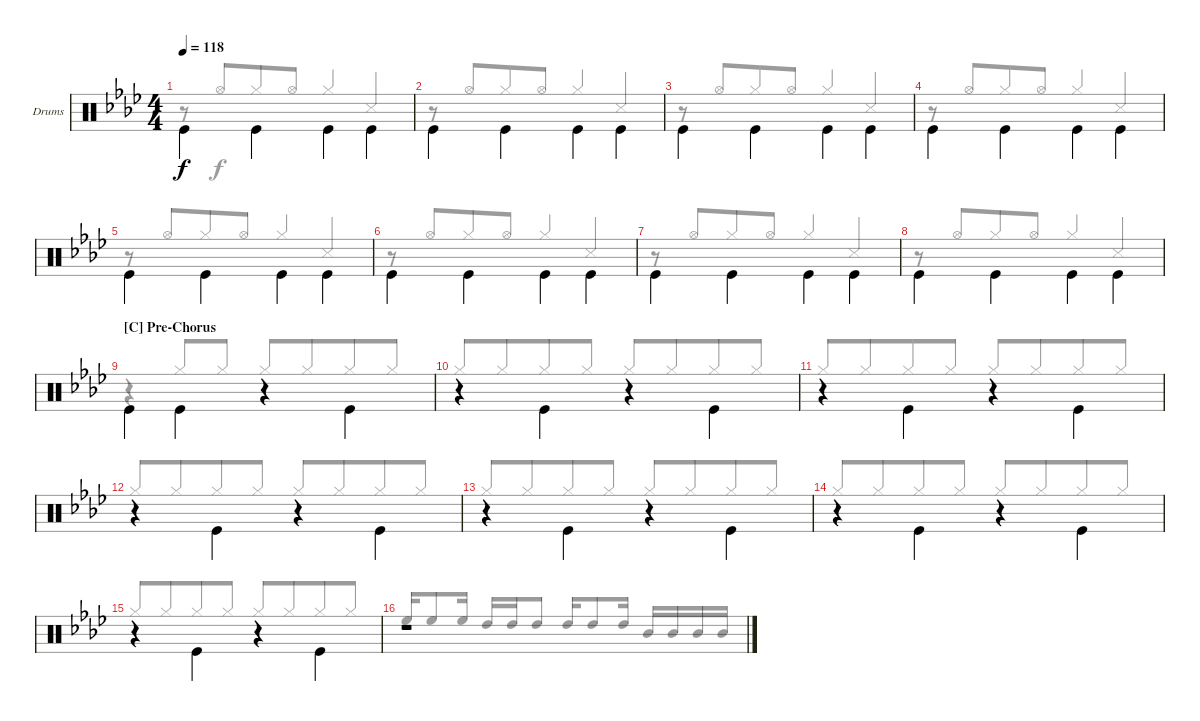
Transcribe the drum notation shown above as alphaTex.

\bracketExtendMode groupsimilarinstruments
\firstSystemTrackNameOrientation horizontal
\otherSystemsTrackNameOrientation horizontal
\track ("Drums" "Drums") {instrument percussion}
\staff {score}
\articulation defaults
\voice
\ts (4 4)
\tempo 118
\clef neutral
\scale
0.5
\ks ab "Kick (hit)".4{dy f beam invert} "Kick (hit)".4{beam invert} "Kick (hit)".4{beam invert} "Kick (hit)".4{beam invert}
|
\scale
0.5 "Kick (hit)".4{beam invert} "Kick (hit)".4{beam invert} "Kick (hit)".4{beam invert} "Kick (hit)".4{beam invert} |
\scale
0.5 "Kick (hit)".4{beam invert} "Kick (hit)".4{beam invert} "Kick (hit)".4{beam invert} "Kick (hit)".4{beam invert} |
\scale
0.5 "Kick (hit)".4{beam invert} "Kick (hit)".4{beam invert} "Kick (hit)".4{beam invert} "Kick (hit)".4{beam invert} |
\scale
0.5 "Kick (hit)".4{beam invert} "Kick (hit)".4{beam invert} "Kick (hit)".4{beam invert} "Kick (hit)".4{beam invert} |
\scale
0.5 "Kick (hit)".4{beam invert} "Kick (hit)".4{beam invert} "Kick (hit)".4{beam invert} "Kick (hit)".4{beam invert} |
\scale
0.5 "Kick (hit)".4{beam invert} "Kick (hit)".4{beam invert} "Kick (hit)".4{beam invert} "Kick (hit)".4{beam invert} |
\scale
0.5 "Kick (hit)".4{beam invert} "Kick (hit)".4{beam invert} "Kick (hit)".4{beam invert} "Kick (hit)".4{beam invert} |
\section ("C" "Pre-Chorus")
\scale
0.5 "Kick (hit)".4{beam invert} "Kick (hit)".4{beam invert} r.4{beam invert} "Kick (hit)".4{beam invert} |
\scale
0.5 r.4{beam invert} "Kick (hit)".4{beam invert} r.4{beam invert} "Kick (hit)".4{beam invert} |
\scale
0.5 r.4{beam invert} "Kick (hit)".4{beam invert} r.4{beam invert} "Kick (hit)".4{beam invert} |
\scale
0.5 r.4{beam invert} "Kick (hit)".4{beam invert} r.4{beam invert} "Kick (hit)".4{beam invert} |
\scale
0.5 r.4{beam invert} "Kick (hit)".4{beam invert} r.4{beam invert} "Kick (hit)".4{beam invert} |
\scale
0.5 r.4{beam invert} "Kick (hit)".4{beam invert} r.4{beam invert} "Kick (hit)".4{beam invert} |
\scale
0.5 r.4{beam invert} "Kick (hit)".4{beam invert} r.4{beam invert} "Kick (hit)".4{beam invert} |
\scale
0.5 r.1
\voice
\clef neutral
\ottava regular
\simile none
\scale
0.5
\ks ab
r.8{dy f} "Hi-Hat (open)".8{beam invert beam merge} "Hi-Hat (closed)".8{beam merge} "Hi-Hat (open)".8{beam merge} "Hi-Hat (closed)".4{beam invert beam merge} "Snare (side stick) 3".4{beam invert beam merge} |
\scale
0.5 r.8 "Hi-Hat (open)".8{beam invert beam merge} "Hi-Hat (closed)".8{beam merge} "Hi-Hat (open)".8{beam merge} "Hi-Hat (closed)".4{beam invert beam merge} "Snare (side stick) 3".4{beam invert beam merge} |
\scale
0.5 r.8 "Hi-Hat (open)".8{beam invert beam merge} "Hi-Hat (closed)".8{beam merge} "Hi-Hat (open)".8{beam merge} "Hi-Hat (closed)".4{beam invert beam merge} "Snare (side stick) 3".4{beam invert beam merge} |
\scale
0.5 r.8 "Hi-Hat (open)".8{beam invert beam merge} "Hi-Hat (closed)".8{beam merge} "Hi-Hat (open)".8{beam merge} "Hi-Hat (closed)".4{beam invert beam merge} "Snare (side stick) 3".4{beam invert beam merge} |
\scale
0.5 r.8 "Hi-Hat (open)".8{beam invert beam merge} "Hi-Hat (closed)".8{beam merge} "Hi-Hat (open)".8{beam merge} "Hi-Hat (closed)".4{beam invert beam merge} "Snare (side stick) 3".4{beam invert beam merge} |
\scale
0.5 r.8 "Hi-Hat (open)".8{beam invert beam merge} "Hi-Hat (closed)".8{beam merge} "Hi-Hat (open)".8{beam merge} "Hi-Hat (closed)".4{beam invert beam merge} "Snare (side stick) 3".4{beam invert beam merge} |
\scale
0.5 r.8 "Hi-Hat (open)".8{beam invert beam merge} "Hi-Hat (closed)".8{beam merge} "Hi-Hat (open)".8{beam merge} "Hi-Hat (closed)".4{beam invert beam merge} "Snare (side stick) 3".4{beam invert beam merge} |
\scale
0.5 r.8 "Hi-Hat (open)".8{beam invert beam merge} "Hi-Hat (closed)".8{beam merge} "Hi-Hat (open)".8{beam merge} "Hi-Hat (closed)".4{beam invert beam merge} "Snare (side stick) 3".4{beam invert beam merge} |
\scale
0.5 r.4 "Hi-Hat (closed)".8{beam invert} "Hi-Hat (closed)".8 "Hi-Hat (closed)".8{beam invert beam merge} "Hi-Hat (closed)".8{beam merge} "Hi-Hat (closed)".8{beam merge} "Hi-Hat (closed)".8{beam merge} |
\scale
0.5 "Hi-Hat (closed)".8{beam invert beam merge} "Hi-Hat (closed)".8{beam merge} "Hi-Hat (closed)".8{beam merge} "Hi-Hat (closed)".8{beam split} "Hi-Hat (closed)".8{beam invert beam merge} "Hi-Hat (closed)".8{beam merge} "Hi-Hat (closed)".8{beam merge} "Hi-Hat (closed)".8{beam merge} |
\scale
0.5 "Hi-Hat (closed)".8{beam invert beam merge} "Hi-Hat (closed)".8{beam merge} "Hi-Hat (closed)".8{beam merge} "Hi-Hat (closed)".8{beam split} "Hi-Hat (closed)".8{beam invert beam merge} "Hi-Hat (closed)".8{beam merge} "Hi-Hat (closed)".8{beam merge} "Hi-Hat (closed)".8{beam merge} |
\scale
0.5 "Hi-Hat (closed)".8{beam invert beam merge} "Hi-Hat (closed)".8{beam merge} "Hi-Hat (closed)".8{beam merge} "Hi-Hat (closed)".8{beam split} "Hi-Hat (closed)".8{beam invert beam merge} "Hi-Hat (closed)".8{beam merge} "Hi-Hat (closed)".8{beam merge} "Hi-Hat (closed)".8{beam merge} |
\scale
0.5 "Hi-Hat (closed)".8{beam invert beam merge} "Hi-Hat (closed)".8{beam merge} "Hi-Hat (closed)".8{beam merge} "Hi-Hat (closed)".8{beam split} "Hi-Hat (closed)".8{beam invert beam merge} "Hi-Hat (closed)".8{beam merge} "Hi-Hat (closed)".8{beam merge} "Hi-Hat (closed)".8{beam merge} |
\scale
0.5 "Hi-Hat (closed)".8{beam invert beam merge} "Hi-Hat (closed)".8{beam merge} "Hi-Hat (closed)".8{beam merge} "Hi-Hat (closed)".8{beam split} "Hi-Hat (closed)".8{beam invert beam merge} "Hi-Hat (closed)".8{beam merge} "Hi-Hat (closed)".8{beam merge} "Hi-Hat (closed)".8{beam merge} |
\scale
0.5 "Hi-Hat (closed)".8{beam invert beam merge} "Hi-Hat (closed)".8{beam merge} "Hi-Hat (closed)".8{beam merge} "Hi-Hat (closed)".8{beam split} "Hi-Hat (closed)".8{beam invert beam merge} "Hi-Hat (closed)".8{beam merge} "Hi-Hat (closed)".8{beam merge} "Hi-Hat (closed)".8{beam merge} |
\scale
0.5 "High Floor Tom (hit)".16{beam invert} "High Floor Tom (hit)".8 "High Floor Tom (hit)".16 "High Tom (hit)".16{beam invert} "High Tom (hit)".16 "High Tom (hit)".8 "High Tom (hit)".16{beam invert} "High Tom (hit)".8 "High Tom (hit)".16 "Mid Tom (hit)".16{beam invert} "Mid Tom (hit)".16 "Mid Tom (hit)".16 "Mid Tom (hit)".16
